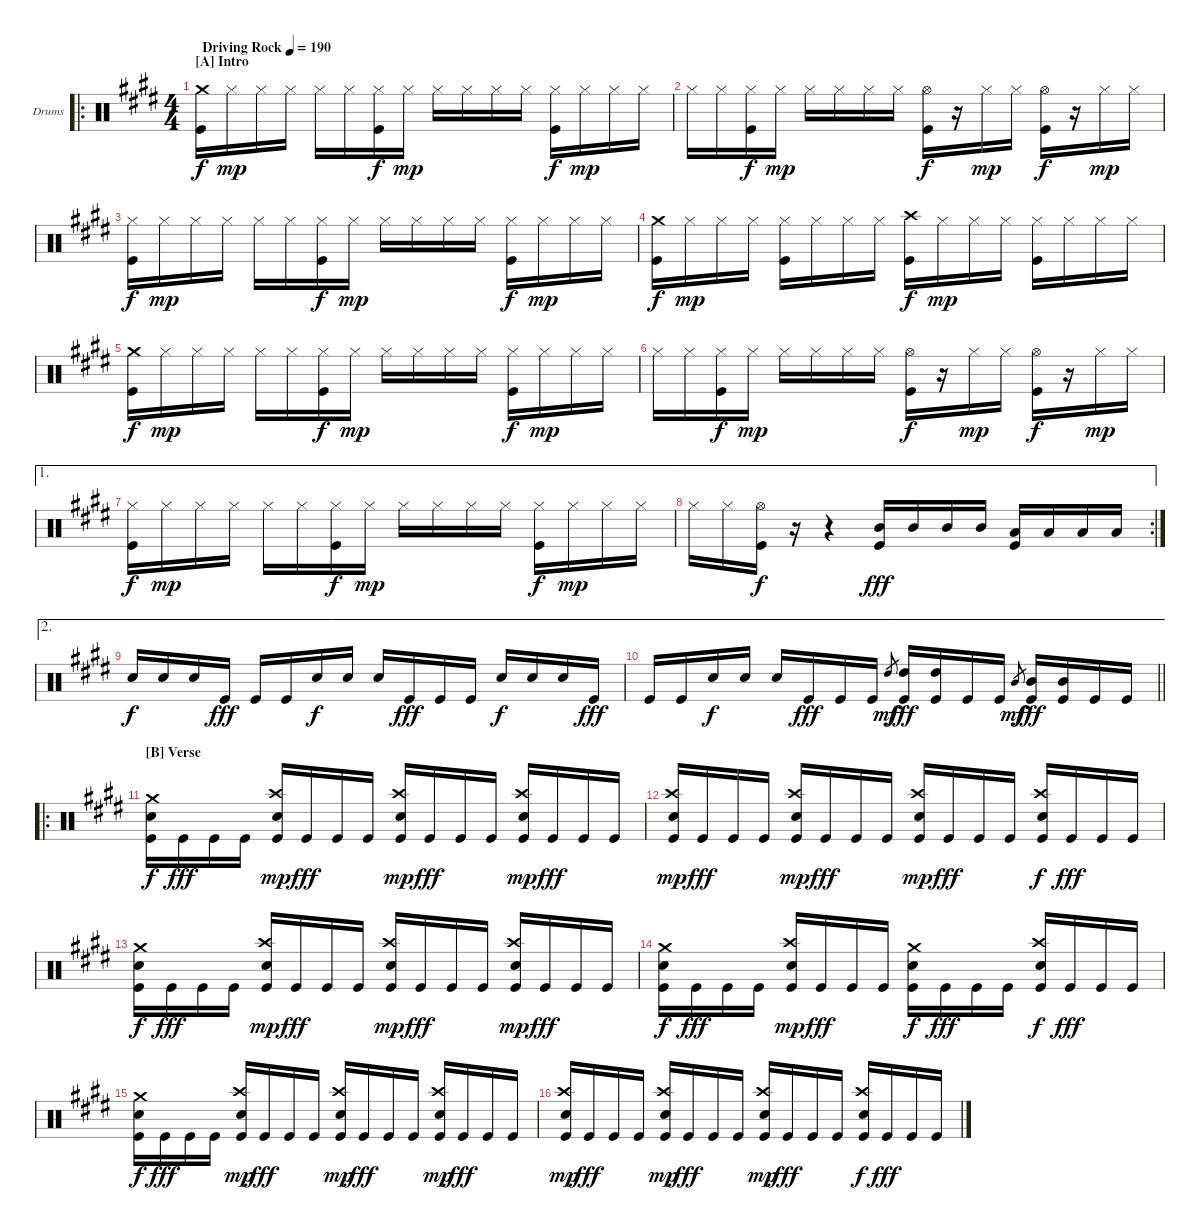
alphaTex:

\bracketExtendMode groupsimilarinstruments
\firstSystemTrackNameOrientation horizontal
\otherSystemsTrackNameOrientation horizontal
\track ("Drumkit" "Drums") {instrument percussion}
\staff {score}
\articulation defaults
\ro
\ts (4 4)
\beaming (8 2 2 2 2)
\section ("A" "Intro")
\tempo (190 "Driving Rock")
\clef neutral
\ks c#minor
("Crash medium (hit)" "Kick (hit)").16{dy f} "Hi-Hat (closed)".16{dy mp} "Hi-Hat (closed)".16 "Hi-Hat (closed)".16 "Hi-Hat (closed)".16 "Hi-Hat (closed)".16 ("Hi-Hat (closed)" "Kick (hit)").16{dy f} "Hi-Hat (closed)".16{dy mp} "Hi-Hat (closed)".16 "Hi-Hat (closed)".16 "Hi-Hat (closed)".16 "Hi-Hat (closed)".16 ("Hi-Hat (closed)" "Kick (hit)").16{dy f} "Hi-Hat (closed)".16{dy mp} "Hi-Hat (closed)".16 "Hi-Hat (closed)".16 |
"Hi-Hat (closed)".16 "Hi-Hat (closed)".16 ("Hi-Hat (closed)" "Kick (hit)").16{dy f} "Hi-Hat (closed)".16{dy mp} "Hi-Hat (closed)".16 "Hi-Hat (closed)".16 "Hi-Hat (closed)".16 "Hi-Hat (closed)".16 ("Hi-Hat (open)" "Kick (hit)").16{dy f} r.16 "Hi-Hat (closed)".16{dy mp} "Hi-Hat (closed)".16 ("Hi-Hat (open)" "Kick (hit)").16{dy f} r.16 "Hi-Hat (closed)".16{dy mp} "Hi-Hat (closed)".16 |
("Hi-Hat (closed)" "Kick (hit)").16{dy f} "Hi-Hat (closed)".16{dy mp} "Hi-Hat (closed)".16 "Hi-Hat (closed)".16 "Hi-Hat (closed)".16 "Hi-Hat (closed)".16 ("Hi-Hat (closed)" "Kick (hit)").16{dy f} "Hi-Hat (closed)".16{dy mp} "Hi-Hat (closed)".16 "Hi-Hat (closed)".16 "Hi-Hat (closed)".16 "Hi-Hat (closed)".16 ("Hi-Hat (closed)" "Kick (hit)").16{dy f} "Hi-Hat (closed)".16{dy mp} "Hi-Hat (closed)".16 "Hi-Hat (closed)".16 |
("Crash medium (hit)" "Kick (hit)").16{dy f} "Hi-Hat (closed)".16{dy mp} "Hi-Hat (closed)".16 "Hi-Hat (closed)".16 ("Hi-Hat (closed)" "Kick (hit)").16 "Hi-Hat (closed)".16 "Hi-Hat (closed)".16 "Hi-Hat (closed)".16 ("Crash high (hit)" "Kick (hit)").16{dy f} "Hi-Hat (closed)".16{dy mp} "Hi-Hat (closed)".16 "Hi-Hat (closed)".16 ("Hi-Hat (closed)" "Kick (hit)").16 "Hi-Hat (closed)".16 "Hi-Hat (closed)".16 "Hi-Hat (closed)".16 |
("Crash medium (hit)" "Kick (hit)").16{dy f} "Hi-Hat (closed)".16{dy mp} "Hi-Hat (closed)".16 "Hi-Hat (closed)".16 "Hi-Hat (closed)".16 "Hi-Hat (closed)".16 ("Hi-Hat (closed)" "Kick (hit)").16{dy f} "Hi-Hat (closed)".16{dy mp} "Hi-Hat (closed)".16 "Hi-Hat (closed)".16 "Hi-Hat (closed)".16 "Hi-Hat (closed)".16 ("Hi-Hat (closed)" "Kick (hit)").16{dy f} "Hi-Hat (closed)".16{dy mp} "Hi-Hat (closed)".16 "Hi-Hat (closed)".16 |
"Hi-Hat (closed)".16 "Hi-Hat (closed)".16 ("Hi-Hat (closed)" "Kick (hit)").16{dy f} "Hi-Hat (closed)".16{dy mp} "Hi-Hat (closed)".16 "Hi-Hat (closed)".16 "Hi-Hat (closed)".16 "Hi-Hat (closed)".16 ("Hi-Hat (open)" "Kick (hit)").16{dy f} r.16 "Hi-Hat (closed)".16{dy mp} "Hi-Hat (closed)".16 ("Hi-Hat (open)" "Kick (hit)").16{dy f} r.16 "Hi-Hat (closed)".16{dy mp} "Hi-Hat (closed)".16 |
\ae 1
("Hi-Hat (closed)" "Kick (hit)").16{dy f} "Hi-Hat (closed)".16{dy mp} "Hi-Hat (closed)".16 "Hi-Hat (closed)".16 "Hi-Hat (closed)".16 "Hi-Hat (closed)".16 ("Hi-Hat (closed)" "Kick (hit)").16{dy f} "Hi-Hat (closed)".16{dy mp} "Hi-Hat (closed)".16 "Hi-Hat (closed)".16 "Hi-Hat (closed)".16 "Hi-Hat (closed)".16 ("Hi-Hat (closed)" "Kick (hit)").16{dy f} "Hi-Hat (closed)".16{dy mp} "Hi-Hat (closed)".16 "Hi-Hat (closed)".16 |
\ae 1
\rc 2 "Hi-Hat (closed)".16 "Hi-Hat (closed)".16
("Hi-Hat (open)" "Kick (hit)").16{dy f} r.16 r.4 ("Mid Tom (hit)" "Kick (hit)").16{dy fff} "Mid Tom (hit)".16 "Mid Tom (hit)".16 "Mid Tom (hit)".16 ("Low Tom (hit)" "Kick (hit)").16 "Low Tom (hit)".16 "Low Tom (hit)".16 "Low Tom (hit)".16 |
\ae 2 "Snare (hit) 2".16{dy f} "Snare (hit) 2".16 "Snare (hit) 2".16 "Kick (hit)".16{dy fff} "Kick (hit)".16 "Kick (hit)".16 "Snare (hit) 2".16{dy f} "Snare (hit) 2".16 "Snare (hit) 2".16 "Kick (hit)".16{dy fff} "Kick (hit)".16 "Kick (hit)".16 "Snare (hit) 2".16{dy f} "Snare (hit) 2".16 "Snare (hit) 2".16 "Kick (hit)".16{dy fff}
|
\ae 2
\barLineRight lightlight "Kick (hit)".16 "Kick (hit)".16 "Snare (hit) 2".16{dy f} "Snare (hit) 2".16 "Snare (hit) 2".16 "Kick (hit)".16{dy fff} "Kick (hit)".16 "Kick (hit)".16 "High Tom (hit)".8{gr dy mf}
("High Tom (hit)" "Kick (hit)").16{dy fff} ("High Tom (hit)" "Kick (hit)").16 "Kick (hit)".16 "Kick (hit)".16 "Mid Tom (hit)".8{gr dy mf} ("Mid Tom (hit)" "Kick (hit)").16{dy fff} ("Mid Tom (hit)" "Kick (hit)").16 "Kick (hit)".16 "Kick (hit)".16 |
\ro
\section ("B" "Verse")
("Crash medium (hit)" "Snare (hit) 2" "Kick (hit)").16{dy f} "Kick (hit)".16{dy fff} "Kick (hit)".16 "Kick (hit)".16 ("Crash high (hit)" "Snare (hit) 2" "Kick (hit)").16{dy mp} "Kick (hit)".16{dy fff} "Kick (hit)".16 "Kick (hit)".16 ("Crash high (hit)" "Snare (hit) 2" "Kick (hit)").16{dy mp} "Kick (hit)".16{dy fff} "Kick (hit)".16 "Kick (hit)".16 ("Crash high (hit)" "Snare (hit) 2" "Kick (hit)").16{dy mp} "Kick (hit)".16{dy fff} "Kick (hit)".16 "Kick (hit)".16 |
("Crash high (hit)" "Snare (hit) 2" "Kick (hit)").16{dy mp} "Kick (hit)".16{dy fff} "Kick (hit)".16 "Kick (hit)".16 ("Crash high (hit)" "Snare (hit) 2" "Kick (hit)").16{dy mp} "Kick (hit)".16{dy fff} "Kick (hit)".16 "Kick (hit)".16 ("Crash high (hit)" "Snare (hit) 2" "Kick (hit)").16{dy mp} "Kick (hit)".16{dy fff} "Kick (hit)".16 "Kick (hit)".16 ("Crash high (hit)" "Snare (hit) 2" "Kick (hit)").16{dy f} "Kick (hit)".16{dy fff} "Kick (hit)".16 "Kick (hit)".16 |
("Crash medium (hit)" "Snare (hit) 2" "Kick (hit)").16{dy f} "Kick (hit)".16{dy fff} "Kick (hit)".16 "Kick (hit)".16 ("Crash high (hit)" "Snare (hit) 2" "Kick (hit)").16{dy mp} "Kick (hit)".16{dy fff} "Kick (hit)".16 "Kick (hit)".16 ("Crash high (hit)" "Snare (hit) 2" "Kick (hit)").16{dy mp} "Kick (hit)".16{dy fff} "Kick (hit)".16 "Kick (hit)".16 ("Crash high (hit)" "Snare (hit) 2" "Kick (hit)").16{dy mp} "Kick (hit)".16{dy fff} "Kick (hit)".16 "Kick (hit)".16 |
("Crash medium (hit)" "Snare (hit) 2" "Kick (hit)").16{dy f} "Kick (hit)".16{dy fff} "Kick (hit)".16 "Kick (hit)".16 ("Crash high (hit)" "Snare (hit) 2" "Kick (hit)").16{dy mp} "Kick (hit)".16{dy fff} "Kick (hit)".16 "Kick (hit)".16 ("Crash medium (hit)" "Snare (hit) 2" "Kick (hit)").16{dy f} "Kick (hit)".16{dy fff} "Kick (hit)".16 "Kick (hit)".16 ("Crash high (hit)" "Snare (hit) 2" "Kick (hit)").16{dy f} "Kick (hit)".16{dy fff} "Kick (hit)".16 "Kick (hit)".16 |
("Crash medium (hit)" "Snare (hit) 2" "Kick (hit)").16{dy f} "Kick (hit)".16{dy fff} "Kick (hit)".16 "Kick (hit)".16 ("Crash high (hit)" "Snare (hit) 2" "Kick (hit)").16{dy mp} "Kick (hit)".16{dy fff} "Kick (hit)".16 "Kick (hit)".16 ("Crash high (hit)" "Snare (hit) 2" "Kick (hit)").16{dy mp} "Kick (hit)".16{dy fff} "Kick (hit)".16 "Kick (hit)".16 ("Crash high (hit)" "Snare (hit) 2" "Kick (hit)").16{dy mp} "Kick (hit)".16{dy fff} "Kick (hit)".16 "Kick (hit)".16 |
("Crash high (hit)" "Snare (hit) 2" "Kick (hit)").16{dy mp} "Kick (hit)".16{dy fff} "Kick (hit)".16 "Kick (hit)".16 ("Crash high (hit)" "Snare (hit) 2" "Kick (hit)").16{dy mp} "Kick (hit)".16{dy fff} "Kick (hit)".16 "Kick (hit)".16 ("Crash high (hit)" "Snare (hit) 2" "Kick (hit)").16{dy mp} "Kick (hit)".16{dy fff} "Kick (hit)".16 "Kick (hit)".16 ("Crash high (hit)" "Snare (hit) 2" "Kick (hit)").16{dy f} "Kick (hit)".16{dy fff} "Kick (hit)".16 "Kick (hit)".16
